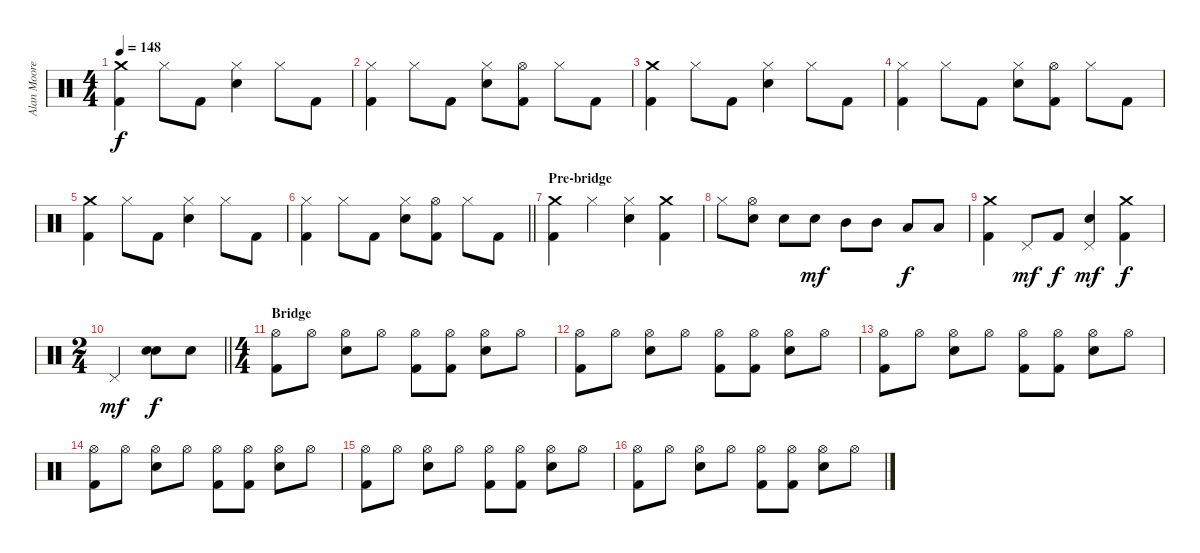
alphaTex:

\track ("Alan Moore" "Alan Moore") {instrument percussion}
\staff {score}
\articulation defaults
\ts (4 4)
\tempo 148
\clef neutral
\ks c
("Kick (hit) 2" "Crash medium (hit)").4{dy f} "Hi-Hat (closed)".8 "Kick (hit) 2".8 ("Hi-Hat (closed)" "Snare (hit) 2").4 "Hi-Hat (closed)".8 "Kick (hit) 2".8 |
("Hi-Hat (closed)" "Kick (hit) 2").4 "Hi-Hat (closed)".8 "Kick (hit) 2".8 ("Hi-Hat (closed)" "Snare (hit) 2").8 ("Hi-Hat (open)" "Kick (hit) 2").8 "Hi-Hat (closed)".8 "Kick (hit) 2".8 |
("Crash medium (hit)" "Kick (hit) 2").4 "Hi-Hat (closed)".8 "Kick (hit) 2".8 ("Hi-Hat (closed)" "Snare (hit) 2").4 "Hi-Hat (closed)".8 "Kick (hit) 2".8 |
("Hi-Hat (closed)" "Kick (hit) 2").4 "Hi-Hat (closed)".8 "Kick (hit) 2".8 ("Hi-Hat (closed)" "Snare (hit) 2").8 ("Hi-Hat (open)" "Kick (hit) 2").8 "Hi-Hat (closed)".8 "Kick (hit) 2".8 |
("Crash medium (hit)" "Kick (hit) 2").4 "Hi-Hat (closed)".8 "Kick (hit) 2".8 ("Hi-Hat (closed)" "Snare (hit) 2").4 "Hi-Hat (closed)".8 "Kick (hit) 2".8 |
\barLineRight lightlight
("Hi-Hat (closed)" "Kick (hit) 2").4 "Hi-Hat (closed)".8 "Kick (hit) 2".8 ("Hi-Hat (closed)" "Snare (hit) 2").8 ("Hi-Hat (open)" "Kick (hit) 2").8 "Hi-Hat (closed)".8 "Kick (hit) 2".8 |
\section ("" "Pre-bridge")
("Kick (hit) 2" "Crash medium (hit)").4 "Hi-Hat (closed)".4 ("Hi-Hat (closed)" "Snare (hit) 2").4 ("Crash medium (hit)" "Kick (hit) 2").4 |
"Hi-Hat (closed)".8 ("Hi-Hat (open)" "Snare (hit) 2").8 "Snare (hit) 2".8 "Snare (hit) 2".8{dy mf} "Mid Tom (hit)".8 "Mid Tom (hit)".8 "Low Tom (hit)".8{dy f} "Low Tom (hit)".8 |
("Kick (hit) 2" "Crash medium (hit)").4 "Pedal Hi-Hat (hit)".8{dy mf} "Kick (hit) 2".8{dy f} ("Snare (hit) 2" "Pedal Hi-Hat (hit)").4{dy mf} ("Kick (hit) 2" "Crash medium (hit)").4{dy f} |
\ts (2 4)
\barLineRight lightlight "Pedal Hi-Hat (hit)".4{dy mf}
("Snare (hit) 2" "Snare (hit) 2").8{dy f} "Snare (hit) 2".8 |
\ts (4 4)
\section ("" "Bridge")
("Hi-Hat (open)" "Kick (hit) 2").8 "Hi-Hat (open)".8 ("Hi-Hat (open)" "Snare (hit) 2").8 "Hi-Hat (open)".8 ("Hi-Hat (open)" "Kick (hit) 2").8 ("Hi-Hat (open)" "Kick (hit) 2").8 ("Hi-Hat (open)" "Snare (hit) 2").8 "Hi-Hat (open)".8 |
("Hi-Hat (open)" "Kick (hit) 2").8 "Hi-Hat (open)".8 ("Hi-Hat (open)" "Snare (hit) 2").8 "Hi-Hat (open)".8 ("Hi-Hat (open)" "Kick (hit) 2").8 ("Hi-Hat (open)" "Kick (hit) 2").8 ("Hi-Hat (open)" "Snare (hit) 2").8 "Hi-Hat (open)".8 |
("Hi-Hat (open)" "Kick (hit) 2").8 "Hi-Hat (open)".8 ("Hi-Hat (open)" "Snare (hit) 2").8 "Hi-Hat (open)".8 ("Hi-Hat (open)" "Kick (hit) 2").8 ("Hi-Hat (open)" "Kick (hit) 2").8 ("Hi-Hat (open)" "Snare (hit) 2").8 "Hi-Hat (open)".8 |
("Hi-Hat (open)" "Kick (hit) 2").8 "Hi-Hat (open)".8 ("Hi-Hat (open)" "Snare (hit) 2").8 "Hi-Hat (open)".8 ("Hi-Hat (open)" "Kick (hit) 2").8 ("Hi-Hat (open)" "Kick (hit) 2").8 ("Hi-Hat (open)" "Snare (hit) 2").8 "Hi-Hat (open)".8 |
("Hi-Hat (open)" "Kick (hit) 2").8 "Hi-Hat (open)".8 ("Hi-Hat (open)" "Snare (hit) 2").8 "Hi-Hat (open)".8 ("Hi-Hat (open)" "Kick (hit) 2").8 ("Hi-Hat (open)" "Kick (hit) 2").8 ("Hi-Hat (open)" "Snare (hit) 2").8 "Hi-Hat (open)".8 |
("Hi-Hat (open)" "Kick (hit) 2").8 "Hi-Hat (open)".8 ("Hi-Hat (open)" "Snare (hit) 2").8 "Hi-Hat (open)".8 ("Hi-Hat (open)" "Kick (hit) 2").8 ("Hi-Hat (open)" "Kick (hit) 2").8 ("Hi-Hat (open)" "Snare (hit) 2").8 "Hi-Hat (open)".8
